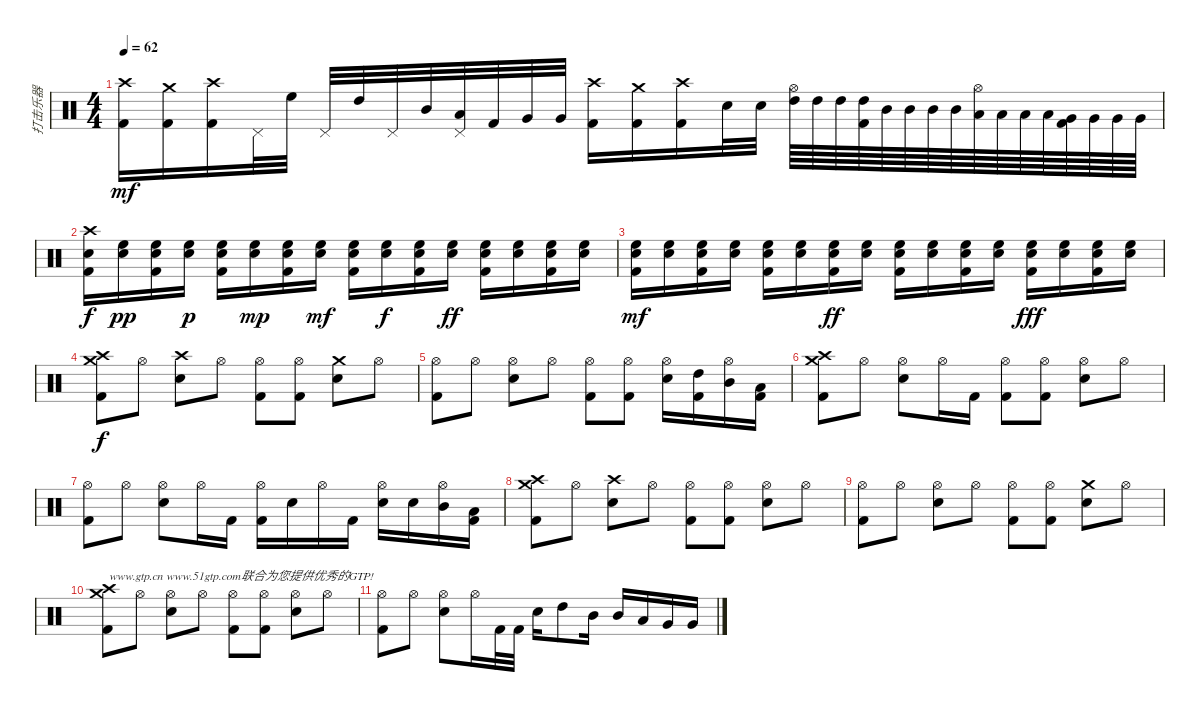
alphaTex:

\track ("打击乐器" "打击乐器") {instrument percussion}
\staff {score}
\articulation defaults
\ts (4 4)
\tempo 62
\clef neutral
\ks c
("Crash high (hit)" "Kick (hit) 2").16{dy mf} ("Crash medium (hit)" "Kick (hit) 2").16 ("Crash high (hit)" "Kick (hit) 2").16 "Pedal Hi-Hat (hit)".32 "High Floor Tom (hit)".32 "Pedal Hi-Hat (hit)".32 "High Tom (hit)".32 "Pedal Hi-Hat (hit)".32 "Mid Tom (hit)".32 ("Pedal Hi-Hat (hit)" "Low Tom (hit)").32 "Kick (hit) 2".32 "Very Low Tom (hit)".32 "Very Low Tom (hit)".32 ("Crash high (hit)" "Kick (hit) 2").16 ("Crash medium (hit)" "Kick (hit) 2").16 ("Crash high (hit)" "Kick (hit) 2").16 "Electric Snare (hit)".32 "Electric Snare (hit)".32 ("Hi-Hat (open)" "High Tom (hit)").64 "High Tom (hit)".64 "High Tom (hit)".64 ("High Tom (hit)" "Kick (hit) 2").64 "Mid Tom (hit)".64 "Mid Tom (hit)".64 "Mid Tom (hit)".64 "Mid Tom (hit)".64 ("Hi-Hat (open)" "Low Tom (hit)").64 "Low Tom (hit)".64 "Low Tom (hit)".64 "Low Tom (hit)".64 ("Very Low Tom (hit)" "Kick (hit) 2").64 "Very Low Tom (hit)".64 "Very Low Tom (hit)".64 "Very Low Tom (hit)".64 |
("Crash high (hit)" "Electric Snare (hit)" "Kick (hit) 2").16{dy f} ("Electric Snare (hit)" "High Floor Tom (hit)").16{dy pp} ("Electric Snare (hit)" "High Floor Tom (hit)" "Kick (hit) 2").16 ("Electric Snare (hit)" "High Floor Tom (hit)").16{dy p} ("Electric Snare (hit)" "High Floor Tom (hit)" "Kick (hit) 2").16 ("Electric Snare (hit)" "High Floor Tom (hit)").16{dy mp} ("Electric Snare (hit)" "High Floor Tom (hit)" "Kick (hit) 2").16 ("Electric Snare (hit)" "High Floor Tom (hit)").16{dy mf} ("Electric Snare (hit)" "High Floor Tom (hit)" "Kick (hit) 2").16 ("Electric Snare (hit)" "High Floor Tom (hit)").16{dy f} ("Electric Snare (hit)" "High Floor Tom (hit)" "Kick (hit) 2").16 ("Electric Snare (hit)" "High Floor Tom (hit)").16{dy ff} ("Electric Snare (hit)" "High Floor Tom (hit)" "Kick (hit) 2").16 ("Electric Snare (hit)" "High Floor Tom (hit)").16 ("Electric Snare (hit)" "High Floor Tom (hit)" "Kick (hit) 2").16 ("Electric Snare (hit)" "High Floor Tom (hit)").16 |
("Electric Snare (hit)" "High Floor Tom (hit)" "Kick (hit) 2").16{dy mf} ("Electric Snare (hit)" "High Floor Tom (hit)").16 ("Electric Snare (hit)" "High Floor Tom (hit)" "Kick (hit) 2").16 ("Electric Snare (hit)" "High Floor Tom (hit)").16 ("Electric Snare (hit)" "High Floor Tom (hit)" "Kick (hit) 2").16 ("Electric Snare (hit)" "High Floor Tom (hit)").16 ("Electric Snare (hit)" "High Floor Tom (hit)" "Kick (hit) 2").16{dy ff} ("Electric Snare (hit)" "High Floor Tom (hit)").16 ("Electric Snare (hit)" "High Floor Tom (hit)" "Kick (hit) 2").16 ("Electric Snare (hit)" "High Floor Tom (hit)").16 ("Electric Snare (hit)" "High Floor Tom (hit)" "Kick (hit) 2").16 ("Electric Snare (hit)" "High Floor Tom (hit)").16 ("Electric Snare (hit)" "High Floor Tom (hit)" "Kick (hit) 2").16{dy fff} ("Electric Snare (hit)" "High Floor Tom (hit)").16 ("Electric Snare (hit)" "High Floor Tom (hit)" "Kick (hit) 2").16 ("Electric Snare (hit)" "High Floor Tom (hit)").16 |
("Crash high (hit)" "Crash medium (hit)" "Kick (hit) 2").8{dy f} "Hi-Hat (open)".8 ("Crash high (hit)" "Electric Snare (hit)").8 "Hi-Hat (open)".8 ("Hi-Hat (open)" "Kick (hit) 2").8 ("Hi-Hat (open)" "Kick (hit) 2").8 ("Crash medium (hit)" "Electric Snare (hit)").8 "Hi-Hat (open)".8 |
("Hi-Hat (open)" "Kick (hit) 2").8 "Hi-Hat (open)".8 ("Hi-Hat (open)" "Electric Snare (hit)").8 "Hi-Hat (open)".8 ("Hi-Hat (open)" "Kick (hit) 2").8 ("Hi-Hat (open)" "Kick (hit) 2").8 ("Hi-Hat (open)" "Electric Snare (hit)").16 ("High Tom (hit)" "Kick (hit) 2").16 ("Hi-Hat (open)" "Mid Tom (hit)").16 ("Low Tom (hit)" "Kick (hit) 2").16 |
("Crash high (hit)" "Crash medium (hit)" "Kick (hit) 2").8 "Hi-Hat (open)".8 ("Hi-Hat (open)" "Electric Snare (hit)").8 "Hi-Hat (open)".16 "Kick (hit) 2".16 ("Hi-Hat (open)" "Kick (hit) 2").8 ("Hi-Hat (open)" "Kick (hit) 2").8 ("Hi-Hat (open)" "Electric Snare (hit)").8 "Hi-Hat (open)".8 |
("Hi-Hat (open)" "Kick (hit) 2").8 "Hi-Hat (open)".8 ("Hi-Hat (open)" "Electric Snare (hit)").8 "Hi-Hat (open)".16 "Kick (hit) 2".16 ("Hi-Hat (open)" "Kick (hit) 2").16 "Electric Snare (hit)".16 "Hi-Hat (open)".16 "Kick (hit) 2".16 ("Hi-Hat (open)" "Electric Snare (hit)").16 "Electric Snare (hit)".16 ("Hi-Hat (open)" "Mid Tom (hit)").16 ("Low Tom (hit)" "Kick (hit) 2").16 |
("Crash high (hit)" "Crash medium (hit)" "Kick (hit) 2").8 "Hi-Hat (open)".8 ("Crash high (hit)" "Electric Snare (hit)").8 "Hi-Hat (open)".8 ("Hi-Hat (open)" "Kick (hit) 2").8 ("Hi-Hat (open)" "Kick (hit) 2").8 ("Hi-Hat (open)" "Electric Snare (hit)").8 "Hi-Hat (open)".8 |
("Hi-Hat (open)" "Kick (hit) 2").8 "Hi-Hat (open)".8 ("Hi-Hat (open)" "Electric Snare (hit)").8 "Hi-Hat (open)".8 ("Hi-Hat (open)" "Kick (hit) 2").8 ("Hi-Hat (open)" "Kick (hit) 2").8 ("Crash medium (hit)" "Electric Snare (hit)").8 "Hi-Hat (open)".8 |
("Crash high (hit)" "Crash medium (hit)" "Kick (hit) 2").8{txt "www.gtp.cn www.51gtp.com联合为您提供优秀的GTP!"} "Hi-Hat (open)".8 ("Hi-Hat (open)" "Electric Snare (hit)").8 "Hi-Hat (open)".8 ("Hi-Hat (open)" "Kick (hit) 2").8 ("Hi-Hat (open)" "Kick (hit) 2").8 ("Hi-Hat (open)" "Electric Snare (hit)").8 "Hi-Hat (open)".8 |
("Hi-Hat (open)" "Kick (hit) 2").8 "Hi-Hat (open)".8 ("Hi-Hat (open)" "Electric Snare (hit)").8 "Hi-Hat (open)".16 "Kick (hit) 2".32 "Kick (hit) 2".32 "Electric Snare (hit)".16 "High Tom (hit)".8 "Mid Tom (hit)".16 "Mid Tom (hit)".16 "Low Tom (hit)".16 "Very Low Tom (hit)".16 "Very Low Tom (hit)".16
